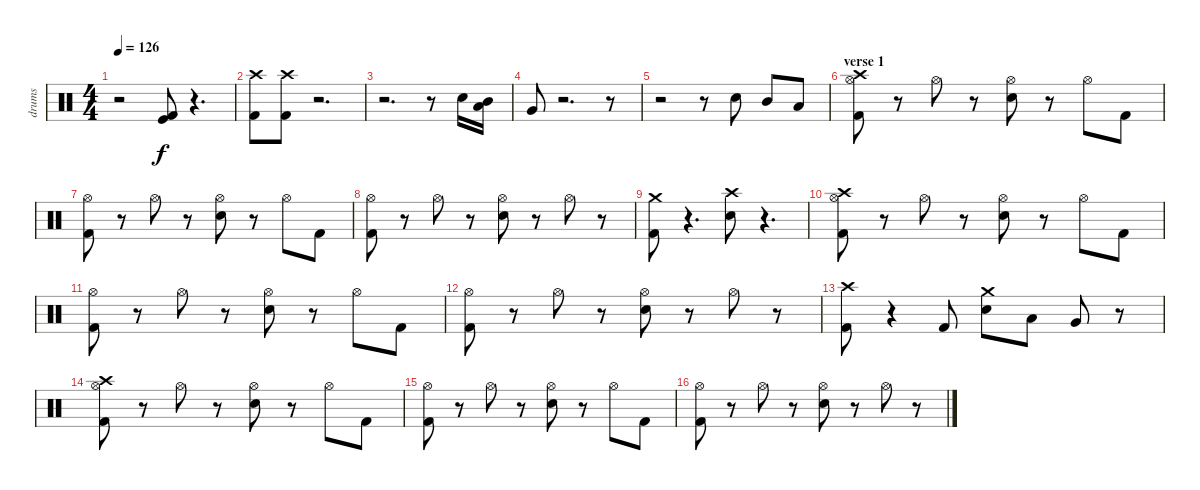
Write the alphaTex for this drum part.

\track ("drums" "drums") {instrument percussion}
\staff {score}
\articulation defaults
\ts (4 4)
\tempo 126
\clef neutral
\ks c
r.2{dy f} ("Kick (hit)" "Kick (hit) 2").8 r.4{d} |
("Kick (hit) 2" "Crash high (hit)").8 ("Kick (hit) 2" "Crash high (hit)").8 r.2{d} |
r.2{d} r.8 "Electric Snare (hit)".16 ("Mid Tom (hit)" "Low Tom (hit)").16 |
"Very Low Tom (hit)".8 r.2{d} r.8 |
r.2 r.8 "Electric Snare (hit)".8 "Mid Tom (hit)".8 "Low Tom (hit)".8 |
\section ("" "verse 1")
("Kick (hit) 2" "Hi-Hat (open)" "Crash high (hit)").8 r.8 "Hi-Hat (open)".8 r.8 ("Electric Snare (hit)" "Hi-Hat (open)").8 r.8 "Hi-Hat (open)".8 "Kick (hit) 2".8 |
("Kick (hit) 2" "Hi-Hat (open)").8 r.8 "Hi-Hat (open)".8 r.8 ("Electric Snare (hit)" "Hi-Hat (open)").8 r.8 "Hi-Hat (open)".8 "Kick (hit) 2".8 |
("Kick (hit) 2" "Hi-Hat (open)").8 r.8 "Hi-Hat (open)".8 r.8 ("Electric Snare (hit)" "Hi-Hat (open)").8 r.8 "Hi-Hat (open)".8 r.8 |
("Kick (hit) 2" "Crash medium (hit)").8 r.4{d} ("Electric Snare (hit)" "Crash high (hit)").8 r.4{d} |
("Kick (hit) 2" "Hi-Hat (open)" "Crash high (hit)").8 r.8 "Hi-Hat (open)".8 r.8 ("Electric Snare (hit)" "Hi-Hat (open)").8 r.8 "Hi-Hat (open)".8 "Kick (hit) 2".8 |
("Kick (hit) 2" "Hi-Hat (open)").8 r.8 "Hi-Hat (open)".8 r.8 ("Electric Snare (hit)" "Hi-Hat (open)").8 r.8 "Hi-Hat (open)".8 "Kick (hit) 2".8 |
("Kick (hit) 2" "Hi-Hat (open)").8 r.8 "Hi-Hat (open)".8 r.8 ("Electric Snare (hit)" "Hi-Hat (open)").8 r.8 "Hi-Hat (open)".8 r.8 |
("Kick (hit) 2" "Crash high (hit)").8 r.4 "Kick (hit) 2".8 ("Electric Snare (hit)" "Crash medium (hit)").8 "Low Tom (hit)".8 "Very Low Tom (hit)".8 r.8 |
("Kick (hit) 2" "Hi-Hat (open)" "Crash high (hit)").8 r.8 "Hi-Hat (open)".8 r.8 ("Electric Snare (hit)" "Hi-Hat (open)").8 r.8 "Hi-Hat (open)".8 "Kick (hit) 2".8 |
("Kick (hit) 2" "Hi-Hat (open)").8 r.8 "Hi-Hat (open)".8 r.8 ("Electric Snare (hit)" "Hi-Hat (open)").8 r.8 "Hi-Hat (open)".8 "Kick (hit) 2".8 |
("Kick (hit) 2" "Hi-Hat (open)").8 r.8 "Hi-Hat (open)".8 r.8 ("Electric Snare (hit)" "Hi-Hat (open)").8 r.8 "Hi-Hat (open)".8 r.8
